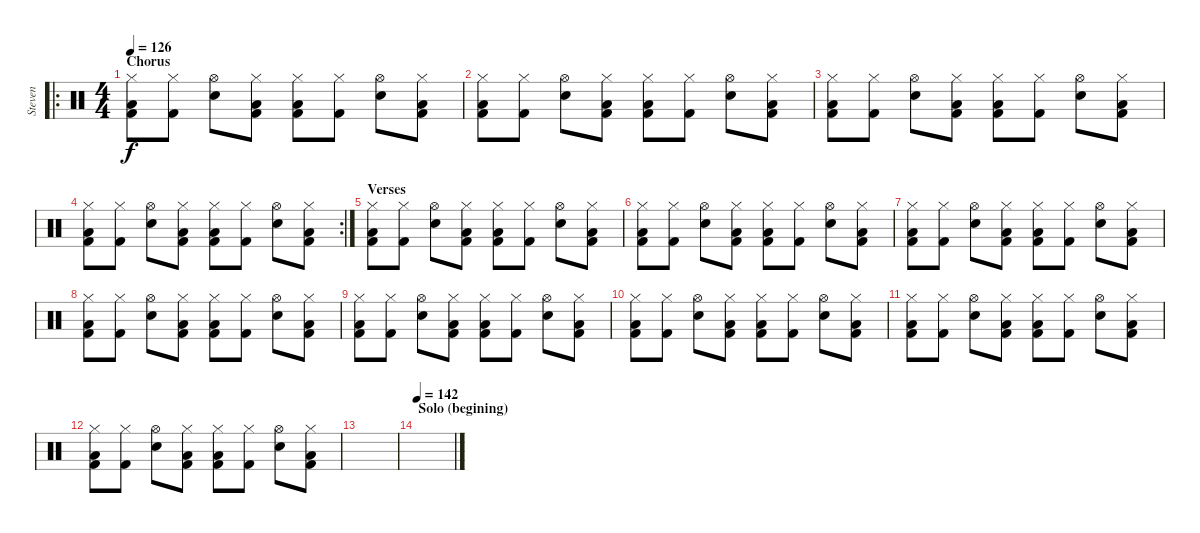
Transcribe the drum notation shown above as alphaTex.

\track ("Steven" "Steven") {instrument percussion}
\staff {score}
\articulation defaults
\ro
\ts (4 4)
\section ("" "Chorus")
\tempo 126
\clef neutral
\ks c
("Hi-Hat (closed)" "Kick (hit) 2" "Low Floor Tom (hit)").8{dy f} ("Kick (hit) 2" "Hi-Hat (closed)").8 ("Hi-Hat (open)" "Snare (hit) 2").8 ("Hi-Hat (closed)" "Kick (hit) 2" "Low Floor Tom (hit)").8 ("Hi-Hat (closed)" "Kick (hit) 2" "Low Floor Tom (hit)").8 ("Kick (hit) 2" "Hi-Hat (closed)").8 ("Hi-Hat (open)" "Snare (hit) 2").8 ("Hi-Hat (closed)" "Kick (hit) 2" "Low Floor Tom (hit)").8 |
("Hi-Hat (closed)" "Kick (hit) 2" "Low Floor Tom (hit)").8 ("Kick (hit) 2" "Hi-Hat (closed)").8 ("Hi-Hat (open)" "Snare (hit) 2").8 ("Hi-Hat (closed)" "Kick (hit) 2" "Low Floor Tom (hit)").8 ("Hi-Hat (closed)" "Kick (hit) 2" "Low Floor Tom (hit)").8 ("Kick (hit) 2" "Hi-Hat (closed)").8 ("Hi-Hat (open)" "Snare (hit) 2").8 ("Hi-Hat (closed)" "Kick (hit) 2" "Low Floor Tom (hit)").8 |
("Hi-Hat (closed)" "Kick (hit) 2" "Low Floor Tom (hit)").8 ("Kick (hit) 2" "Hi-Hat (closed)").8 ("Hi-Hat (open)" "Snare (hit) 2").8 ("Hi-Hat (closed)" "Kick (hit) 2" "Low Floor Tom (hit)").8 ("Hi-Hat (closed)" "Kick (hit) 2" "Low Floor Tom (hit)").8 ("Kick (hit) 2" "Hi-Hat (closed)").8 ("Hi-Hat (open)" "Snare (hit) 2").8 ("Hi-Hat (closed)" "Kick (hit) 2" "Low Floor Tom (hit)").8 |
\rc 2
("Hi-Hat (closed)" "Kick (hit) 2" "Low Floor Tom (hit)").8 ("Kick (hit) 2" "Hi-Hat (closed)").8 ("Hi-Hat (open)" "Snare (hit) 2").8 ("Hi-Hat (closed)" "Kick (hit) 2" "Low Floor Tom (hit)").8 ("Hi-Hat (closed)" "Kick (hit) 2" "Low Floor Tom (hit)").8 ("Kick (hit) 2" "Hi-Hat (closed)").8 ("Hi-Hat (open)" "Snare (hit) 2").8 ("Hi-Hat (closed)" "Kick (hit) 2" "Low Floor Tom (hit)").8 |
\section ("" "Verses")
("Hi-Hat (closed)" "Kick (hit) 2" "Low Floor Tom (hit)").8 ("Kick (hit) 2" "Hi-Hat (closed)").8 ("Hi-Hat (open)" "Snare (hit) 2").8 ("Hi-Hat (closed)" "Kick (hit) 2" "Low Floor Tom (hit)").8 ("Hi-Hat (closed)" "Kick (hit) 2" "Low Floor Tom (hit)").8 ("Kick (hit) 2" "Hi-Hat (closed)").8 ("Hi-Hat (open)" "Snare (hit) 2").8 ("Hi-Hat (closed)" "Kick (hit) 2" "Low Floor Tom (hit)").8 |
("Hi-Hat (closed)" "Kick (hit) 2" "Low Floor Tom (hit)").8 ("Kick (hit) 2" "Hi-Hat (closed)").8 ("Hi-Hat (open)" "Snare (hit) 2").8 ("Hi-Hat (closed)" "Kick (hit) 2" "Low Floor Tom (hit)").8 ("Hi-Hat (closed)" "Kick (hit) 2" "Low Floor Tom (hit)").8 ("Kick (hit) 2" "Hi-Hat (closed)").8 ("Hi-Hat (open)" "Snare (hit) 2").8 ("Hi-Hat (closed)" "Kick (hit) 2" "Low Floor Tom (hit)").8 |
("Hi-Hat (closed)" "Kick (hit) 2" "Low Floor Tom (hit)").8 ("Kick (hit) 2" "Hi-Hat (closed)").8 ("Hi-Hat (open)" "Snare (hit) 2").8 ("Hi-Hat (closed)" "Kick (hit) 2" "Low Floor Tom (hit)").8 ("Hi-Hat (closed)" "Kick (hit) 2" "Low Floor Tom (hit)").8 ("Kick (hit) 2" "Hi-Hat (closed)").8 ("Hi-Hat (open)" "Snare (hit) 2").8 ("Hi-Hat (closed)" "Kick (hit) 2" "Low Floor Tom (hit)").8 |
("Hi-Hat (closed)" "Kick (hit) 2" "Low Floor Tom (hit)").8 ("Kick (hit) 2" "Hi-Hat (closed)").8 ("Hi-Hat (open)" "Snare (hit) 2").8 ("Hi-Hat (closed)" "Kick (hit) 2" "Low Floor Tom (hit)").8 ("Hi-Hat (closed)" "Kick (hit) 2" "Low Floor Tom (hit)").8 ("Kick (hit) 2" "Hi-Hat (closed)").8 ("Hi-Hat (open)" "Snare (hit) 2").8 ("Hi-Hat (closed)" "Kick (hit) 2" "Low Floor Tom (hit)").8 |
("Hi-Hat (closed)" "Kick (hit) 2" "Low Floor Tom (hit)").8 ("Kick (hit) 2" "Hi-Hat (closed)").8 ("Hi-Hat (open)" "Snare (hit) 2").8 ("Hi-Hat (closed)" "Kick (hit) 2" "Low Floor Tom (hit)").8 ("Hi-Hat (closed)" "Kick (hit) 2" "Low Floor Tom (hit)").8 ("Kick (hit) 2" "Hi-Hat (closed)").8 ("Hi-Hat (open)" "Snare (hit) 2").8 ("Hi-Hat (closed)" "Kick (hit) 2" "Low Floor Tom (hit)").8 |
("Hi-Hat (closed)" "Kick (hit) 2" "Low Floor Tom (hit)").8 ("Kick (hit) 2" "Hi-Hat (closed)").8 ("Hi-Hat (open)" "Snare (hit) 2").8 ("Hi-Hat (closed)" "Kick (hit) 2" "Low Floor Tom (hit)").8 ("Hi-Hat (closed)" "Kick (hit) 2" "Low Floor Tom (hit)").8 ("Kick (hit) 2" "Hi-Hat (closed)").8 ("Hi-Hat (open)" "Snare (hit) 2").8 ("Hi-Hat (closed)" "Kick (hit) 2" "Low Floor Tom (hit)").8 |
("Hi-Hat (closed)" "Kick (hit) 2" "Low Floor Tom (hit)").8 ("Kick (hit) 2" "Hi-Hat (closed)").8 ("Hi-Hat (open)" "Snare (hit) 2").8 ("Hi-Hat (closed)" "Kick (hit) 2" "Low Floor Tom (hit)").8 ("Hi-Hat (closed)" "Kick (hit) 2" "Low Floor Tom (hit)").8 ("Kick (hit) 2" "Hi-Hat (closed)").8 ("Hi-Hat (open)" "Snare (hit) 2").8 ("Hi-Hat (closed)" "Kick (hit) 2" "Low Floor Tom (hit)").8 |
("Hi-Hat (closed)" "Kick (hit) 2" "Low Floor Tom (hit)").8 ("Kick (hit) 2" "Hi-Hat (closed)").8 ("Hi-Hat (open)" "Snare (hit) 2").8 ("Hi-Hat (closed)" "Kick (hit) 2" "Low Floor Tom (hit)").8 ("Hi-Hat (closed)" "Kick (hit) 2" "Low Floor Tom (hit)").8 ("Kick (hit) 2" "Hi-Hat (closed)").8 ("Hi-Hat (open)" "Snare (hit) 2").8 ("Hi-Hat (closed)" "Kick (hit) 2" "Low Floor Tom (hit)").8 |
|
\section ("" "Solo (begining)")
\tempo 142
